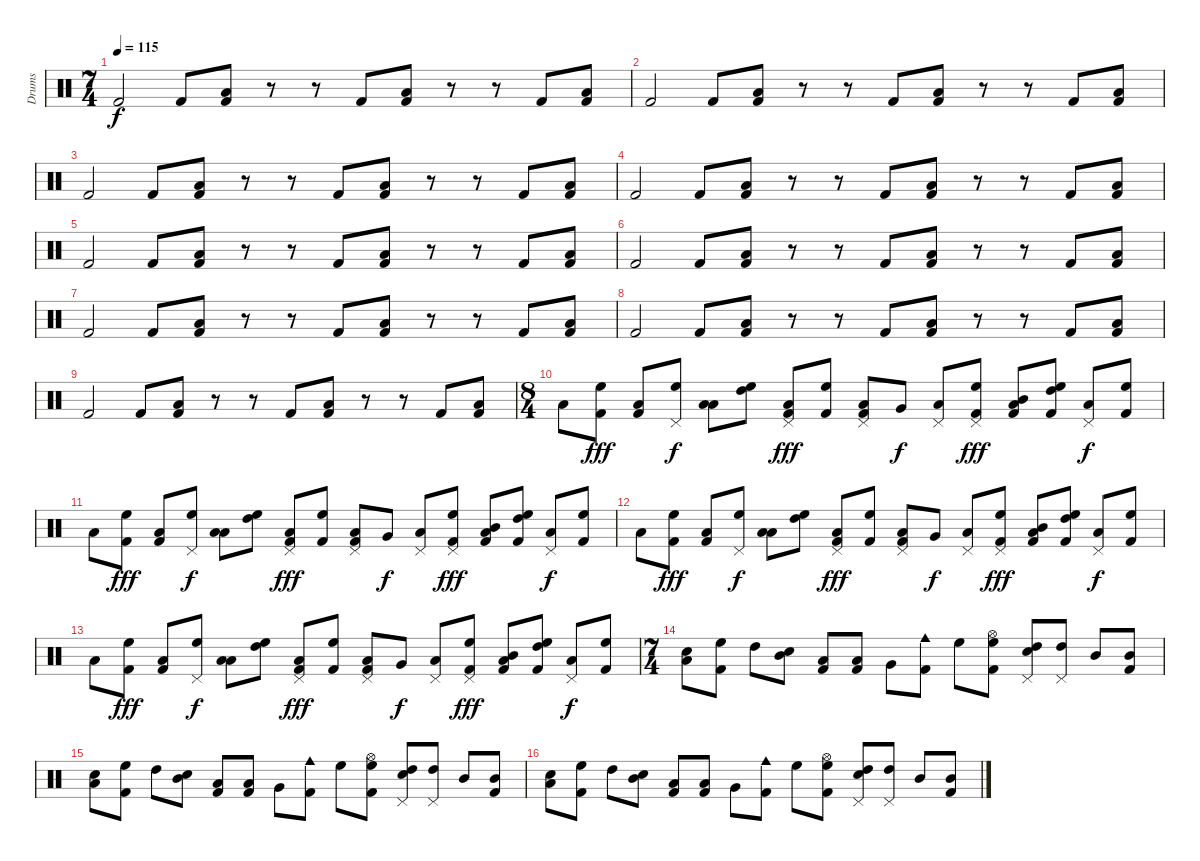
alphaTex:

\track ("Drums" "Drums") {instrument percussion}
\staff {score}
\articulation defaults
\ts (7 4)
\tempo 115
\clef neutral
\ks c "Kick (hit) 2".2{dy f} "Kick (hit) 2".8
("Low Tom (hit)" "Kick (hit) 2").8 r.8 r.8 "Kick (hit) 2".8 ("Low Tom (hit)" "Kick (hit) 2").8 r.8 r.8 "Kick (hit) 2".8 ("Low Tom (hit)" "Kick (hit) 2").8 |
"Kick (hit) 2".2 "Kick (hit) 2".8 ("Low Tom (hit)" "Kick (hit) 2").8 r.8 r.8 "Kick (hit) 2".8 ("Low Tom (hit)" "Kick (hit) 2").8 r.8 r.8 "Kick (hit) 2".8 ("Low Tom (hit)" "Kick (hit) 2").8 |
"Kick (hit) 2".2 "Kick (hit) 2".8 ("Low Tom (hit)" "Kick (hit) 2").8 r.8 r.8 "Kick (hit) 2".8 ("Low Tom (hit)" "Kick (hit) 2").8 r.8 r.8 "Kick (hit) 2".8 ("Low Tom (hit)" "Kick (hit) 2").8 |
"Kick (hit) 2".2 "Kick (hit) 2".8 ("Low Tom (hit)" "Kick (hit) 2").8 r.8 r.8 "Kick (hit) 2".8 ("Low Tom (hit)" "Kick (hit) 2").8 r.8 r.8 "Kick (hit) 2".8 ("Low Tom (hit)" "Kick (hit) 2").8 |
"Kick (hit) 2".2 "Kick (hit) 2".8 ("Low Tom (hit)" "Kick (hit) 2").8 r.8 r.8 "Kick (hit) 2".8 ("Low Tom (hit)" "Kick (hit) 2").8 r.8 r.8 "Kick (hit) 2".8 ("Low Tom (hit)" "Kick (hit) 2").8 |
"Kick (hit) 2".2 "Kick (hit) 2".8 ("Low Tom (hit)" "Kick (hit) 2").8 r.8 r.8 "Kick (hit) 2".8 ("Low Tom (hit)" "Kick (hit) 2").8 r.8 r.8 "Kick (hit) 2".8 ("Low Tom (hit)" "Kick (hit) 2").8 |
"Kick (hit) 2".2 "Kick (hit) 2".8 ("Low Tom (hit)" "Kick (hit) 2").8 r.8 r.8 "Kick (hit) 2".8 ("Low Tom (hit)" "Kick (hit) 2").8 r.8 r.8 "Kick (hit) 2".8 ("Low Tom (hit)" "Kick (hit) 2").8 |
"Kick (hit) 2".2 "Kick (hit) 2".8 ("Low Tom (hit)" "Kick (hit) 2").8 r.8 r.8 "Kick (hit) 2".8 ("Low Tom (hit)" "Kick (hit) 2").8 r.8 r.8 "Kick (hit) 2".8 ("Low Tom (hit)" "Kick (hit) 2").8 |
"Kick (hit) 2".2 "Kick (hit) 2".8 ("Low Tom (hit)" "Kick (hit) 2").8 r.8 r.8 "Kick (hit) 2".8 ("Low Tom (hit)" "Kick (hit) 2").8 r.8 r.8 "Kick (hit) 2".8 ("Low Tom (hit)" "Kick (hit) 2").8 |
\ts (8 4)
"Low Tom (hit)".8 ("High Floor Tom (hit)" "Kick (hit) 2").8{dy fff} ("Low Tom (hit)" "Kick (hit) 2").8 ("High Floor Tom (hit)" "Pedal Hi-Hat (hit)").8{dy f} ("Low Floor Tom (hit)" "Low Tom (hit)").8 ("High Tom (hit)" "High Floor Tom (hit)").8 ("Low Tom (hit)" "Pedal Hi-Hat (hit)" "Kick (hit) 2").8{dy fff} ("High Floor Tom (hit)" "Kick (hit) 2").8 ("Low Tom (hit)" "Pedal Hi-Hat (hit)" "Kick (hit) 2").8 "Very Low Tom (hit)".8{dy f} ("Low Tom (hit)" "Pedal Hi-Hat (hit)").8 ("High Floor Tom (hit)" "Pedal Hi-Hat (hit)" "Kick (hit) 2").8{dy fff} ("Mid Tom (hit)" "Low Tom (hit)" "Kick (hit) 2").8 ("High Tom (hit)" "High Floor Tom (hit)" "Kick (hit) 2").8 ("Low Tom (hit)" "Pedal Hi-Hat (hit)").8{dy f} ("High Floor Tom (hit)" "Kick (hit) 2").8 |
"Low Tom (hit)".8 ("High Floor Tom (hit)" "Kick (hit) 2").8{dy fff} ("Low Tom (hit)" "Kick (hit) 2").8 ("High Floor Tom (hit)" "Pedal Hi-Hat (hit)").8{dy f} ("Low Floor Tom (hit)" "Low Tom (hit)").8 ("High Tom (hit)" "High Floor Tom (hit)").8 ("Low Tom (hit)" "Pedal Hi-Hat (hit)" "Kick (hit) 2").8{dy fff} ("High Floor Tom (hit)" "Kick (hit) 2").8 ("Low Tom (hit)" "Pedal Hi-Hat (hit)" "Kick (hit) 2").8 "Very Low Tom (hit)".8{dy f} ("Low Tom (hit)" "Pedal Hi-Hat (hit)").8 ("High Floor Tom (hit)" "Pedal Hi-Hat (hit)" "Kick (hit) 2").8{dy fff} ("Mid Tom (hit)" "Low Tom (hit)" "Kick (hit) 2").8 ("High Tom (hit)" "High Floor Tom (hit)" "Kick (hit) 2").8 ("Low Tom (hit)" "Pedal Hi-Hat (hit)").8{dy f} ("High Floor Tom (hit)" "Kick (hit) 2").8 |
"Low Tom (hit)".8 ("High Floor Tom (hit)" "Kick (hit) 2").8{dy fff} ("Low Tom (hit)" "Kick (hit) 2").8 ("High Floor Tom (hit)" "Pedal Hi-Hat (hit)").8{dy f} ("Low Floor Tom (hit)" "Low Tom (hit)").8 ("High Tom (hit)" "High Floor Tom (hit)").8 ("Low Tom (hit)" "Pedal Hi-Hat (hit)" "Kick (hit) 2").8{dy fff} ("High Floor Tom (hit)" "Kick (hit) 2").8 ("Low Tom (hit)" "Pedal Hi-Hat (hit)" "Kick (hit) 2").8 "Very Low Tom (hit)".8{dy f} ("Low Tom (hit)" "Pedal Hi-Hat (hit)").8 ("High Floor Tom (hit)" "Pedal Hi-Hat (hit)" "Kick (hit) 2").8{dy fff} ("Mid Tom (hit)" "Low Tom (hit)" "Kick (hit) 2").8 ("High Tom (hit)" "High Floor Tom (hit)" "Kick (hit) 2").8 ("Low Tom (hit)" "Pedal Hi-Hat (hit)").8{dy f} ("High Floor Tom (hit)" "Kick (hit) 2").8 |
"Low Tom (hit)".8 ("High Floor Tom (hit)" "Kick (hit) 2").8{dy fff} ("Low Tom (hit)" "Kick (hit) 2").8 ("High Floor Tom (hit)" "Pedal Hi-Hat (hit)").8{dy f} ("Low Floor Tom (hit)" "Low Tom (hit)").8 ("High Tom (hit)" "High Floor Tom (hit)").8 ("Low Tom (hit)" "Pedal Hi-Hat (hit)" "Kick (hit) 2").8{dy fff} ("High Floor Tom (hit)" "Kick (hit) 2").8 ("Low Tom (hit)" "Pedal Hi-Hat (hit)" "Kick (hit) 2").8 "Very Low Tom (hit)".8{dy f} ("Low Tom (hit)" "Pedal Hi-Hat (hit)").8 ("High Floor Tom (hit)" "Pedal Hi-Hat (hit)" "Kick (hit) 2").8{dy fff} ("Mid Tom (hit)" "Low Tom (hit)" "Kick (hit) 2").8 ("High Tom (hit)" "High Floor Tom (hit)" "Kick (hit) 2").8 ("Low Tom (hit)" "Pedal Hi-Hat (hit)").8{dy f} ("High Floor Tom (hit)" "Kick (hit) 2").8 |
\ts (7 4)
("Low Floor Tom (hit)" "Electric Snare (hit)").8 ("High Floor Tom (hit)" "Kick (hit) 2").8 "High Tom (hit)".8 ("Mid Tom (hit)" "Electric Snare (hit)").8 ("Low Tom (hit)" "Kick (hit) 2").8 ("Low Floor Tom (hit)" "Kick (hit) 2").8 "Very Low Tom (hit)".8 ("Cowbell medium (hit)" "Kick (hit) 2").8 "High Floor Tom (hit)".8 ("High Floor Tom (hit)" "Hi-Hat (open)" "Kick (hit) 2").8 ("High Tom (hit)" "Electric Snare (hit)" "Pedal Hi-Hat (hit)").8 ("High Tom (hit)" "Pedal Hi-Hat (hit)").8 "Mid Tom (hit)".8 ("Mid Tom (hit)" "Kick (hit) 2").8 |
("Low Floor Tom (hit)" "Electric Snare (hit)").8 ("High Floor Tom (hit)" "Kick (hit) 2").8 "High Tom (hit)".8 ("Mid Tom (hit)" "Electric Snare (hit)").8 ("Low Tom (hit)" "Kick (hit) 2").8 ("Low Floor Tom (hit)" "Kick (hit) 2").8 "Very Low Tom (hit)".8 ("Cowbell medium (hit)" "Kick (hit) 2").8 "High Floor Tom (hit)".8 ("High Floor Tom (hit)" "Hi-Hat (open)" "Kick (hit) 2").8 ("High Tom (hit)" "Electric Snare (hit)" "Pedal Hi-Hat (hit)").8 ("High Tom (hit)" "Pedal Hi-Hat (hit)").8 "Mid Tom (hit)".8 ("Mid Tom (hit)" "Kick (hit) 2").8 |
("Low Floor Tom (hit)" "Electric Snare (hit)").8 ("High Floor Tom (hit)" "Kick (hit) 2").8 "High Tom (hit)".8 ("Mid Tom (hit)" "Electric Snare (hit)").8 ("Low Tom (hit)" "Kick (hit) 2").8 ("Low Floor Tom (hit)" "Kick (hit) 2").8 "Very Low Tom (hit)".8 ("Cowbell medium (hit)" "Kick (hit) 2").8 "High Floor Tom (hit)".8 ("High Floor Tom (hit)" "Hi-Hat (open)" "Kick (hit) 2").8 ("High Tom (hit)" "Electric Snare (hit)" "Pedal Hi-Hat (hit)").8 ("High Tom (hit)" "Pedal Hi-Hat (hit)").8 "Mid Tom (hit)".8 ("Mid Tom (hit)" "Kick (hit) 2").8
